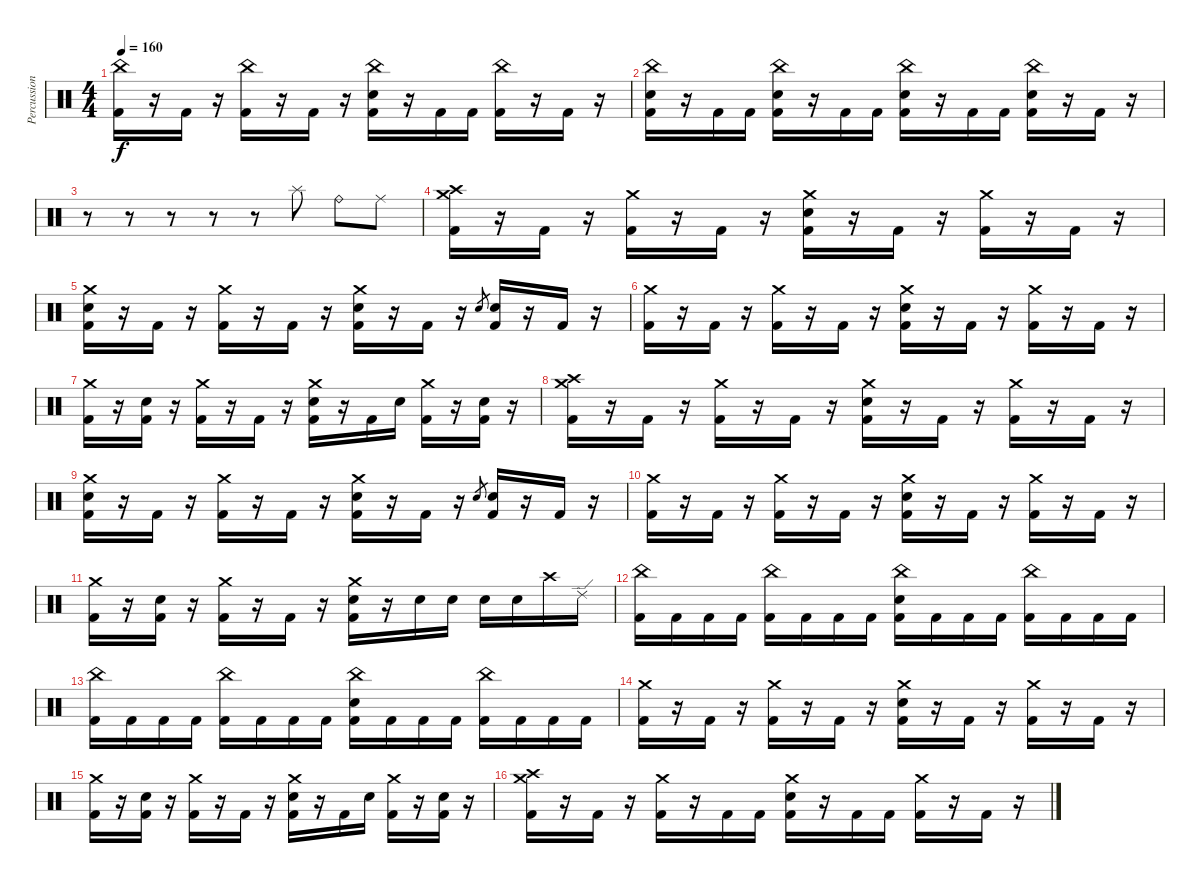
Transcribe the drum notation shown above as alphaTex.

\track ("Percussion" "Percussion") {instrument percussion}
\staff {score}
\articulation defaults
\ts (4 4)
\tempo 160
\clef neutral
\ks c
("China (hit)" "Kick (hit) 2").16{dy f} r.16 "Kick (hit) 2".16 r.16 ("China (hit)" "Kick (hit) 2").16 r.16 "Kick (hit) 2".16 r.16 ("China (hit)" "Electric Snare (hit)" "Kick (hit) 2").16 r.16 "Kick (hit) 2".16 "Kick (hit) 2".16 ("China (hit)" "Kick (hit) 2").16 r.16 "Kick (hit) 2".16 r.16 |
("China (hit)" "Electric Snare (hit)" "Kick (hit) 2").16 r.16 "Kick (hit) 2".16 "Kick (hit) 2".16 ("China (hit)" "Electric Snare (hit)" "Kick (hit) 2").16 r.16 "Kick (hit) 2".16 "Kick (hit) 2".16 ("China (hit)" "Electric Snare (hit)" "Kick (hit) 2").16 r.16 "Kick (hit) 2".16 "Kick (hit) 2".16 ("China (hit)" "Electric Snare (hit)" "Kick (hit) 2").16 r.16 "Kick (hit) 2".16 r.16 |
r.8 r.8 r.8 r.8 r.8 "Splash (hit)".8 "Ride (bell)".8 "Ride (middle)".8 |
("Crash medium (hit)" "Crash high (hit)" "Kick (hit) 2").16 r.16 "Kick (hit) 2".16 r.16 ("Crash medium (hit)" "Kick (hit) 2").16 r.16 "Kick (hit) 2".16 r.16 ("Crash medium (hit)" "Electric Snare (hit)" "Kick (hit) 2").16 r.16 "Kick (hit) 2".16 r.16 ("Crash medium (hit)" "Kick (hit) 2").16 r.16 "Kick (hit) 2".16 r.16 |
("Crash medium (hit)" "Electric Snare (hit)" "Kick (hit) 2").16 r.16 "Kick (hit) 2".16 r.16 ("Crash medium (hit)" "Kick (hit) 2").16 r.16 "Kick (hit) 2".16 r.16 ("Crash medium (hit)" "Electric Snare (hit)" "Kick (hit) 2").16 r.16 "Kick (hit) 2".16 r.16 "Electric Snare (hit)".8{gr} ("Electric Snare (hit)" "Kick (hit) 2").16 r.16 "Kick (hit) 2".16 r.16 |
("Crash medium (hit)" "Kick (hit) 2").16 r.16 "Kick (hit) 2".16 r.16 ("Crash medium (hit)" "Kick (hit) 2").16 r.16 "Kick (hit) 2".16 r.16 ("Crash medium (hit)" "Electric Snare (hit)" "Kick (hit) 2").16 r.16 "Kick (hit) 2".16 r.16 ("Crash medium (hit)" "Kick (hit) 2").16 r.16 "Kick (hit) 2".16 r.16 |
("Crash medium (hit)" "Kick (hit) 2").16 r.16 ("Electric Snare (hit)" "Kick (hit) 2").16 r.16 ("Crash medium (hit)" "Kick (hit) 2").16 r.16 "Kick (hit) 2".16 r.16 ("Crash medium (hit)" "Electric Snare (hit)" "Kick (hit) 2").16 r.16 "Kick (hit) 2".16 "Electric Snare (hit)".16 ("Crash medium (hit)" "Kick (hit) 2").16 r.16 ("Electric Snare (hit)" "Kick (hit) 2").16 r.16 |
("Crash medium (hit)" "Crash high (hit)" "Kick (hit) 2").16 r.16 "Kick (hit) 2".16 r.16 ("Crash medium (hit)" "Kick (hit) 2").16 r.16 "Kick (hit) 2".16 r.16 ("Crash medium (hit)" "Electric Snare (hit)" "Kick (hit) 2").16 r.16 "Kick (hit) 2".16 r.16 ("Crash medium (hit)" "Kick (hit) 2").16 r.16 "Kick (hit) 2".16 r.16 |
("Crash medium (hit)" "Electric Snare (hit)" "Kick (hit) 2").16 r.16 "Kick (hit) 2".16 r.16 ("Crash medium (hit)" "Kick (hit) 2").16 r.16 "Kick (hit) 2".16 r.16 ("Crash medium (hit)" "Electric Snare (hit)" "Kick (hit) 2").16 r.16 "Kick (hit) 2".16 r.16 "Electric Snare (hit)".8{gr} ("Electric Snare (hit)" "Kick (hit) 2").16 r.16 "Kick (hit) 2".16 r.16 |
("Crash medium (hit)" "Kick (hit) 2").16 r.16 "Kick (hit) 2".16 r.16 ("Crash medium (hit)" "Kick (hit) 2").16 r.16 "Kick (hit) 2".16 r.16 ("Crash medium (hit)" "Electric Snare (hit)" "Kick (hit) 2").16 r.16 "Kick (hit) 2".16 r.16 ("Crash medium (hit)" "Kick (hit) 2").16 r.16 "Kick (hit) 2".16 r.16 |
("Crash medium (hit)" "Kick (hit) 2").16 r.16 ("Electric Snare (hit)" "Kick (hit) 2").16 r.16 ("Crash medium (hit)" "Kick (hit) 2").16 r.16 "Kick (hit) 2".16 r.16 ("Crash medium (hit)" "Electric Snare (hit)" "Kick (hit) 2").16 r.16 "Electric Snare (hit)".16 "Electric Snare (hit)".16 "Electric Snare (hit)".16 "Electric Snare (hit)".16 "Crash high (hit)".16 "Ride (edge) 2".16 |
("China (hit)" "Kick (hit) 2").16 "Kick (hit) 2".16 "Kick (hit) 2".16 "Kick (hit) 2".16 ("China (hit)" "Kick (hit) 2").16 "Kick (hit) 2".16 "Kick (hit) 2".16 "Kick (hit) 2".16 ("China (hit)" "Electric Snare (hit)" "Kick (hit) 2").16 "Kick (hit) 2".16 "Kick (hit) 2".16 "Kick (hit) 2".16 ("China (hit)" "Kick (hit) 2").16 "Kick (hit) 2".16 "Kick (hit) 2".16 "Kick (hit) 2".16 |
("China (hit)" "Kick (hit) 2").16 "Kick (hit) 2".16 "Kick (hit) 2".16 "Kick (hit) 2".16 ("China (hit)" "Kick (hit) 2").16 "Kick (hit) 2".16 "Kick (hit) 2".16 "Kick (hit) 2".16 ("China (hit)" "Electric Snare (hit)" "Kick (hit) 2").16 "Kick (hit) 2".16 "Kick (hit) 2".16 "Kick (hit) 2".16 ("China (hit)" "Kick (hit) 2").16 "Kick (hit) 2".16 "Kick (hit) 2".16 "Kick (hit) 2".16 |
("Crash medium (hit)" "Kick (hit) 2").16 r.16 "Kick (hit) 2".16 r.16 ("Crash medium (hit)" "Kick (hit) 2").16 r.16 "Kick (hit) 2".16 r.16 ("Crash medium (hit)" "Electric Snare (hit)" "Kick (hit) 2").16 r.16 "Kick (hit) 2".16 r.16 ("Crash medium (hit)" "Kick (hit) 2").16 r.16 "Kick (hit) 2".16 r.16 |
("Crash medium (hit)" "Kick (hit) 2").16 r.16 ("Electric Snare (hit)" "Kick (hit) 2").16 r.16 ("Crash medium (hit)" "Kick (hit) 2").16 r.16 "Kick (hit) 2".16 r.16 ("Crash medium (hit)" "Electric Snare (hit)" "Kick (hit) 2").16 r.16 "Kick (hit) 2".16 "Electric Snare (hit)".16 ("Crash medium (hit)" "Kick (hit) 2").16 r.16 ("Electric Snare (hit)" "Kick (hit) 2").16 r.16 |
("Crash medium (hit)" "Crash high (hit)" "Kick (hit) 2").16 r.16 "Kick (hit) 2".16 r.16 ("Crash medium (hit)" "Kick (hit) 2").16 r.16 "Kick (hit) 2".16 "Kick (hit) 2".16 ("Crash medium (hit)" "Electric Snare (hit)" "Kick (hit) 2").16 r.16 "Kick (hit) 2".16 "Kick (hit) 2".16 ("Crash medium (hit)" "Kick (hit) 2").16 r.16 "Kick (hit) 2".16 r.16
